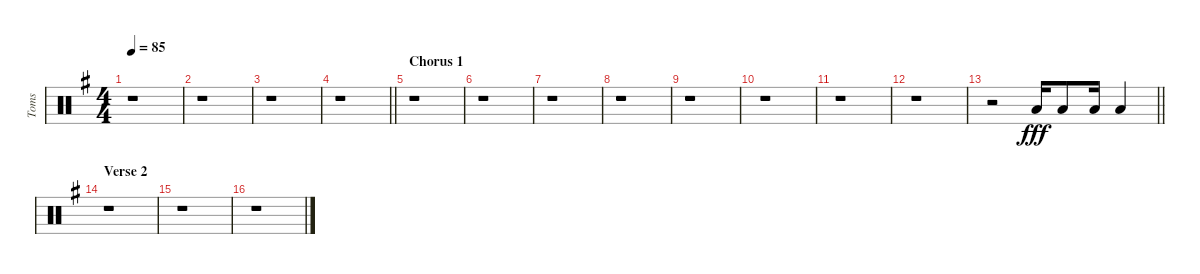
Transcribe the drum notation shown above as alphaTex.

\track ("Toms" "Toms") {instrument percussion}
\staff {score}
\articulation defaults
\ts (4 4)
\tempo 85
\clef neutral
\ks g
r.1{dy fff} |
r.1 |
r.1 |
\barLineRight lightlight
r.1 |
\section ("" "Chorus 1")
r.1 |
r.1 |
r.1 |
r.1 |
r.1 |
r.1 |
r.1 |
r.1 |
\barLineRight lightlight
r.2 "Low Tom (hit)".16{volume 14 balance 4} "Low Tom (hit)".8 "Low Tom (hit)".16 "Low Tom (hit)".4{volume 0} |
\section ("" "Verse 2")
r.1 |
r.1 |
r.1
